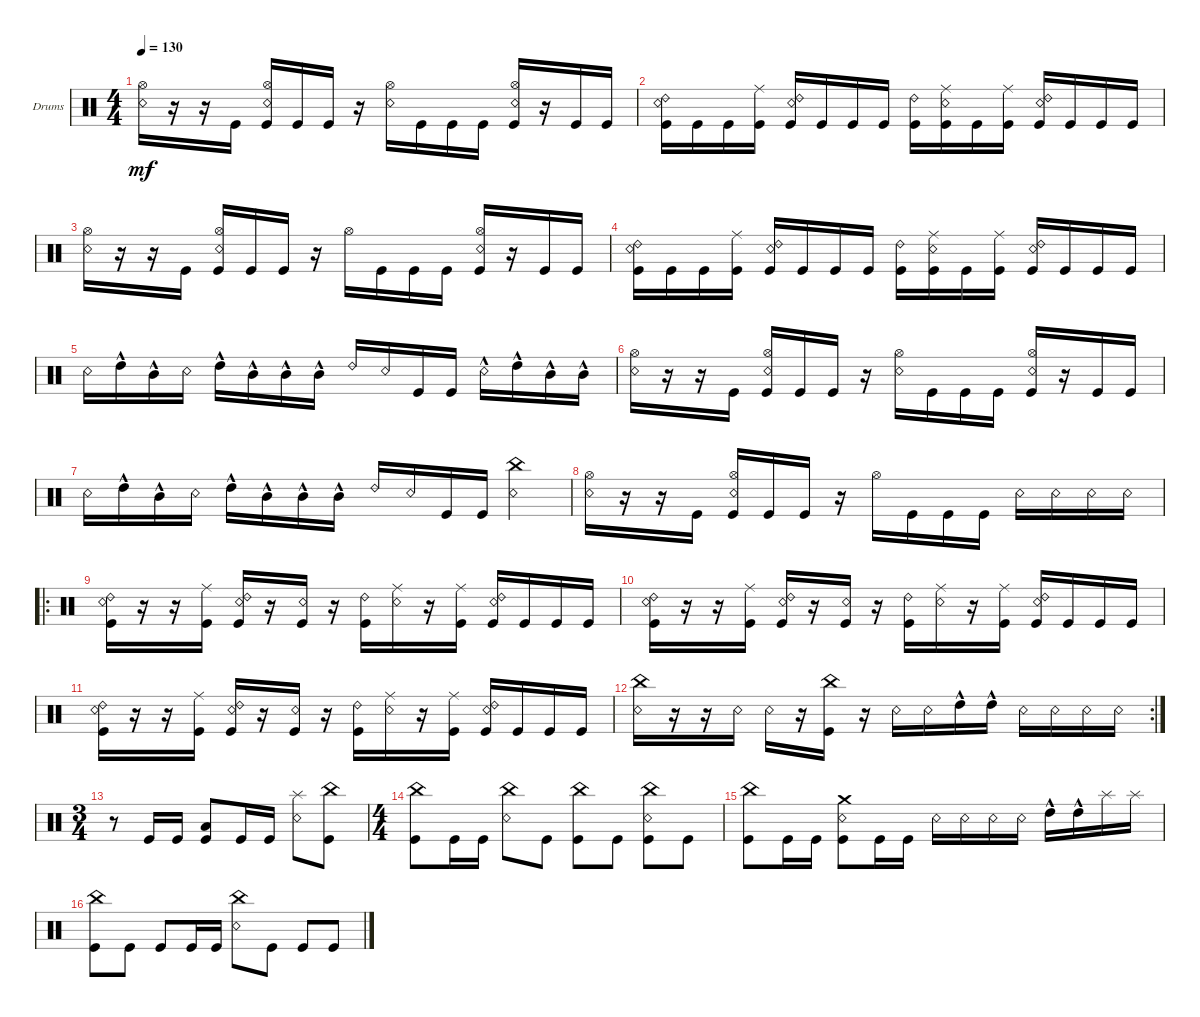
\defaultSystemsLayout 4
\bracketExtendMode groupsimilarinstruments
\firstSystemTrackNameOrientation horizontal
\otherSystemsTrackNameOrientation horizontal
\track ("Drumkit" "Drums") {instrument percussion}
\staff {score}
\articulation defaults
\ts (4 4)
\tempo 130
\clef neutral
\ks c
("Snare (rim shot)" "Hi-Hat (open)").16{dy mf} r.16 r.16 "Kick (hit)".16 ("Kick (hit)" "Hi-Hat (open)" "Snare (rim shot)").16 "Kick (hit)".16 "Kick (hit)".16 r.16 ("Hi-Hat (open)" "Snare (rim shot)").16 "Kick (hit)".16 "Kick (hit)".16 "Kick (hit)".16 ("Kick (hit)" "Snare (rim shot)" "Hi-Hat (open)").16 r.16 "Kick (hit)".16 "Kick (hit)".16 |
("Kick (hit)" "Snare (rim shot)" "Ride (bell) 2").16 "Kick (hit)".16 "Kick (hit)".16 ("Kick (hit)" "Ride (middle)").16 ("Kick (hit)" "Snare (rim shot)" "Ride (bell) 2").16 "Kick (hit)".16 "Kick (hit)".16 "Kick (hit)".16 ("Kick (hit)" "Ride (bell) 2").16 ("Snare (rim shot)" "Ride (middle)" "Kick (hit)").16 "Kick (hit)".16 ("Kick (hit)" "Ride (middle)").16 ("Kick (hit)" "Snare (rim shot)" "Ride (bell) 2").16 "Kick (hit)".16 "Kick (hit)".16 "Kick (hit)".16 |
("Snare (rim shot)" "Hi-Hat (open)").16 r.16 r.16 "Kick (hit)".16 ("Kick (hit)" "Hi-Hat (open)" "Snare (rim shot)").16 "Kick (hit)".16 "Kick (hit)".16 r.16 "Hi-Hat (open)".16 "Kick (hit)".16 "Kick (hit)".16 "Kick (hit)".16 ("Kick (hit)" "Snare (rim shot)" "Hi-Hat (open)").16 r.16 "Kick (hit)".16 "Kick (hit)".16 |
("Kick (hit)" "Snare (rim shot)" "Ride (bell) 2").16 "Kick (hit)".16 "Kick (hit)".16 ("Kick (hit)" "Ride (middle)").16 ("Kick (hit)" "Snare (rim shot)" "Ride (bell) 2").16 "Kick (hit)".16 "Kick (hit)".16 "Kick (hit)".16 ("Kick (hit)" "Ride (bell) 2").16 ("Snare (rim shot)" "Ride (middle)" "Kick (hit)").16 "Kick (hit)".16 ("Kick (hit)" "Ride (middle)").16 ("Kick (hit)" "Snare (rim shot)" "Ride (bell) 2").16 "Kick (hit)".16 "Kick (hit)".16 "Kick (hit)".16 |
"Snare (rim shot)".16 "High Tom (hit)"{hac}.16 "Mid Tom (hit)"{hac}.16 "Snare (rim shot)".16 "High Tom (hit)"{hac}.16 "Mid Tom (hit)"{hac}.16 "Mid Tom (hit)"{hac}.16 "Mid Tom (hit)"{hac}.16 "Ride (bell) 2".16 "Snare (rim shot)".16 "Kick (hit)".16 "Kick (hit)".16 "Snare (rim shot)"{hac}.16 "High Tom (hit)"{hac}.16 "Mid Tom (hit)"{hac}.16 "Mid Tom (hit)"{hac}.16 |
("Snare (rim shot)" "Hi-Hat (open)").16 r.16 r.16 "Kick (hit)".16 ("Kick (hit)" "Hi-Hat (open)" "Snare (rim shot)").16 "Kick (hit)".16 "Kick (hit)".16 r.16 ("Hi-Hat (open)" "Snare (rim shot)").16 "Kick (hit)".16 "Kick (hit)".16 "Kick (hit)".16 ("Kick (hit)" "Snare (rim shot)" "Hi-Hat (open)").16 r.16 "Kick (hit)".16 "Kick (hit)".16 |
"Snare (rim shot)".16 "High Tom (hit)"{hac}.16 "Mid Tom (hit)"{hac}.16 "Snare (rim shot)".16 "High Tom (hit)"{hac}.16 "Mid Tom (hit)"{hac}.16 "Mid Tom (hit)"{hac}.16 "Mid Tom (hit)"{hac}.16 "Ride (bell) 2".16 "Snare (rim shot)".16 "Kick (hit)".16 "Kick (hit)".16 ("Snare (rim shot)" "China (hit)").4 |
("Snare (rim shot)" "Hi-Hat (open)").16 r.16 r.16 "Kick (hit)".16 ("Kick (hit)" "Hi-Hat (open)" "Snare (rim shot)").16 "Kick (hit)".16 "Kick (hit)".16 r.16 "Hi-Hat (open)".16 "Kick (hit)".16 "Kick (hit)".16 "Kick (hit)".16 "Snare (rim shot)".16 "Snare (rim shot)".16 "Snare (rim shot)".16 "Snare (rim shot)".16 |
\ro
("Kick (hit)" "Snare (rim shot)" "Ride (bell) 2").16 r.16 r.16 ("Kick (hit)" "Ride (middle)").16 ("Kick (hit)" "Snare (rim shot)" "Ride (bell) 2").16 r.16 ("Kick (hit)" "Snare (rim shot)").16 r.16 ("Kick (hit)" "Ride (bell) 2").16 ("Snare (rim shot)" "Ride (middle)").16 r.16 ("Kick (hit)" "Ride (middle)").16 ("Kick (hit)" "Snare (rim shot)" "Ride (bell) 2").16 "Kick (hit)".16 "Kick (hit)".16 "Kick (hit)".16 |
("Kick (hit)" "Snare (rim shot)" "Ride (bell) 2").16 r.16 r.16 ("Kick (hit)" "Ride (middle)").16 ("Kick (hit)" "Snare (rim shot)" "Ride (bell) 2").16 r.16 ("Kick (hit)" "Snare (rim shot)").16 r.16 ("Kick (hit)" "Ride (bell) 2").16 ("Snare (rim shot)" "Ride (middle)").16 r.16 ("Kick (hit)" "Ride (middle)").16 ("Kick (hit)" "Snare (rim shot)" "Ride (bell) 2").16 "Kick (hit)".16 "Kick (hit)".16 "Kick (hit)".16 |
("Kick (hit)" "Snare (rim shot)" "Ride (bell) 2").16 r.16 r.16 ("Kick (hit)" "Ride (middle)").16 ("Kick (hit)" "Snare (rim shot)" "Ride (bell) 2").16 r.16 ("Kick (hit)" "Snare (rim shot)").16 r.16 ("Kick (hit)" "Ride (bell) 2").16 ("Snare (rim shot)" "Ride (middle)").16 r.16 ("Kick (hit)" "Ride (middle)").16 ("Kick (hit)" "Snare (rim shot)" "Ride (bell) 2").16 "Kick (hit)".16 "Kick (hit)".16 "Kick (hit)".16 |
\rc 2
("Snare (rim shot)" "China (hit)").16 r.16 r.16 "Snare (rim shot)".16 "Snare (rim shot)".16 r.16 ("China (hit)" "Kick (hit)").16 r.16 "Snare (rim shot)".16 "Snare (rim shot)".16 "High Tom (hit)"{hac}.16 "High Tom (hit)"{hac}.16 "Snare (rim shot)".16 "Snare (rim shot)".16 "Snare (rim shot)".16 "Snare (rim shot)".16 |
\ts (3 4)
r.8 "Kick (hit)".16 "Kick (hit)".16 ("Kick (hit)" "Low Tom (hit)").8 "Kick (hit)".16 "Kick (hit)".16 ("Snare (rim shot)" "Splash (hit)").8 ("Kick (hit)" "China (hit)").8 |
\ts (4 4)
("China (hit)" "Kick (hit)").8 "Kick (hit)".16 "Kick (hit)".16 ("Snare (rim shot)" "China (hit)").8 "Kick (hit)".8 ("Kick (hit)" "China (hit)").8 "Kick (hit)".8 ("Kick (hit)" "China (hit)" "Snare (rim shot)").8 "Kick (hit)".8 |
("China (hit)" "Kick (hit)").8 "Kick (hit)".16 "Kick (hit)".16 ("Kick (hit)" "Snare (rim shot)" "Crash medium (hit)").8 "Kick (hit)".16 "Kick (hit)".16 "Snare (rim shot)".16 "Snare (rim shot)".16 "Snare (rim shot)".16 "Snare (rim shot)".16 "High Tom (hit)"{hac}.16 "High Tom (hit)"{hac}.16 "Splash (hit)".16 "Splash (hit)".16 |
("China (hit)" "Kick (hit)").8 "Kick (hit)".8 "Kick (hit)".8 "Kick (hit)".16 "Kick (hit)".16 ("Snare (rim shot)" "China (hit)").8 "Kick (hit)".8 "Kick (hit)".8 "Kick (hit)".8
